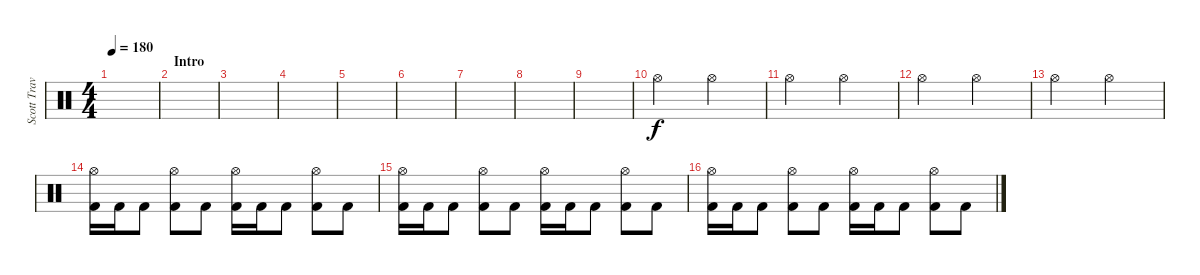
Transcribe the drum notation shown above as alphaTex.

\track ("Scott Travis" "Scott Trav") {instrument percussion}
\staff {score}
\articulation defaults
\ts (4 4)
\tempo 180
\clef neutral
\ks c
|
\section ("" "Intro")
|
|
|
|
|
|
|
|
"Hi-Hat (open)".2 "Hi-Hat (open)".2 |
"Hi-Hat (open)".2 "Hi-Hat (open)".2 |
"Hi-Hat (open)".2 "Hi-Hat (open)".2 |
"Hi-Hat (open)".2 "Hi-Hat (open)".2 |
("Hi-Hat (open)" "Kick (hit) 2").16 "Kick (hit) 2".16 "Kick (hit) 2".8 ("Hi-Hat (open)" "Kick (hit) 2").8 "Kick (hit) 2".8 ("Hi-Hat (open)" "Kick (hit) 2").16 "Kick (hit) 2".16 "Kick (hit) 2".8 ("Hi-Hat (open)" "Kick (hit) 2").8 "Kick (hit) 2".8 |
("Hi-Hat (open)" "Kick (hit) 2").16 "Kick (hit) 2".16 "Kick (hit) 2".8 ("Hi-Hat (open)" "Kick (hit) 2").8 "Kick (hit) 2".8 ("Hi-Hat (open)" "Kick (hit) 2").16 "Kick (hit) 2".16 "Kick (hit) 2".8 ("Hi-Hat (open)" "Kick (hit) 2").8 "Kick (hit) 2".8 |
("Hi-Hat (open)" "Kick (hit) 2").16 "Kick (hit) 2".16 "Kick (hit) 2".8 ("Hi-Hat (open)" "Kick (hit) 2").8 "Kick (hit) 2".8 ("Hi-Hat (open)" "Kick (hit) 2").16 "Kick (hit) 2".16 "Kick (hit) 2".8 ("Hi-Hat (open)" "Kick (hit) 2").8 "Kick (hit) 2".8
